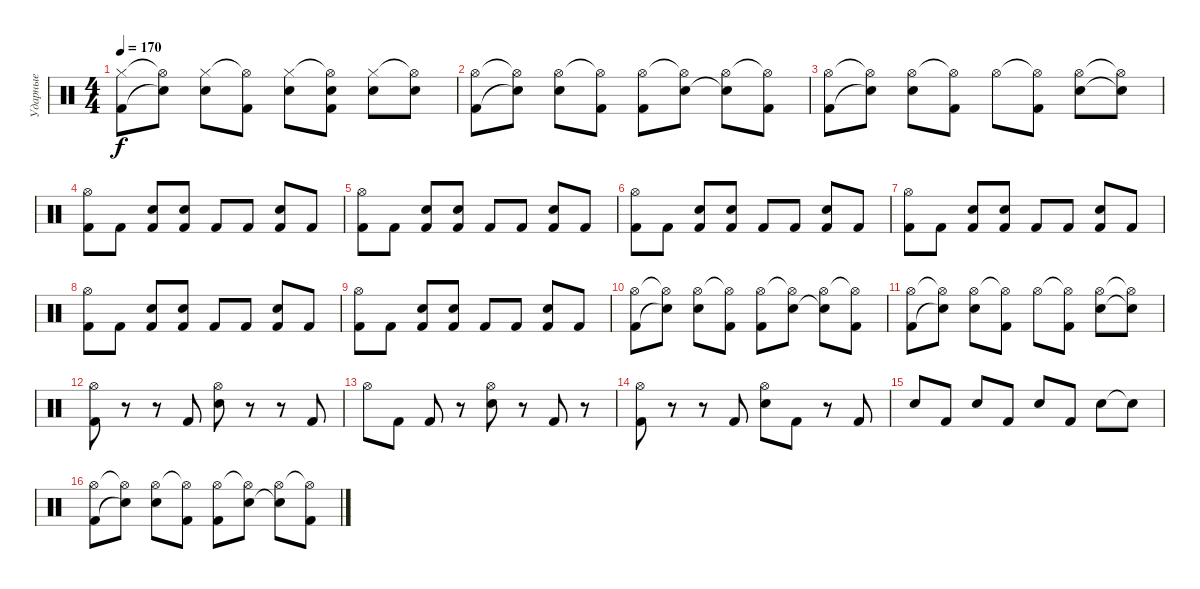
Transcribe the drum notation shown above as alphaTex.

\track ("Ударные" "Ударные") {instrument percussion}
\staff {score}
\articulation defaults
\ts (4 4)
\tempo 170
\clef neutral
\ks c
("Hi-Hat (closed)" "Kick (hit) 2").8{dy f} ("Hi-Hat (open)"{t} "Snare (hit)"{t}).8 ("Hi-Hat (closed)" "Electric Snare (hit)").8 ("Hi-Hat (open)"{t} "Kick (hit) 2").8 ("Hi-Hat (closed)" "Electric Snare (hit)").8 ("Hi-Hat (open)"{t} "Electric Snare (hit)" "Kick (hit) 2").8 ("Hi-Hat (closed)" "Electric Snare (hit)").8 ("Hi-Hat (open)"{t} "Electric Snare (hit)").8 |
("Hi-Hat (open)" "Kick (hit) 2").8 ("Hi-Hat (open)"{t} "Snare (hit)"{t}).8 ("Hi-Hat (open)" "Electric Snare (hit)").8 ("Hi-Hat (open)"{t} "Kick (hit) 2").8 ("Hi-Hat (open)" "Kick (hit) 2").8 ("Hi-Hat (open)"{t} "Electric Snare (hit)").8 ("Hi-Hat (open)" "Snare (hit)"{t}).8 ("Hi-Hat (open)"{t} "Kick (hit) 2").8 |
("Hi-Hat (open)" "Kick (hit) 2").8 ("Hi-Hat (open)"{t} "Snare (hit)"{t}).8 ("Hi-Hat (open)" "Electric Snare (hit)").8 ("Hi-Hat (open)"{t} "Kick (hit) 2").8 "Hi-Hat (open)".8 ("Hi-Hat (open)"{t} "Kick (hit) 2").8 ("Hi-Hat (open)" "Electric Snare (hit)").8 ("Hi-Hat (open)"{t} "Snare (hit)"{t}).8 |
("Hi-Hat (open)" "Kick (hit) 2").8 "Kick (hit) 2".8 ("Electric Snare (hit)" "Kick (hit) 2").8 ("Electric Snare (hit)" "Kick (hit) 2").8 "Kick (hit) 2".8 "Kick (hit) 2".8 ("Electric Snare (hit)" "Kick (hit) 2").8 "Kick (hit) 2".8 |
("Hi-Hat (open)" "Kick (hit) 2").8 "Kick (hit) 2".8 ("Electric Snare (hit)" "Kick (hit) 2").8 ("Electric Snare (hit)" "Kick (hit) 2").8 "Kick (hit) 2".8 "Kick (hit) 2".8 ("Electric Snare (hit)" "Kick (hit) 2").8 "Kick (hit) 2".8 |
("Hi-Hat (open)" "Kick (hit) 2").8 "Kick (hit) 2".8 ("Electric Snare (hit)" "Kick (hit) 2").8 ("Electric Snare (hit)" "Kick (hit) 2").8 "Kick (hit) 2".8 "Kick (hit) 2".8 ("Electric Snare (hit)" "Kick (hit) 2").8 "Kick (hit) 2".8 |
("Hi-Hat (open)" "Kick (hit) 2").8 "Kick (hit) 2".8 ("Electric Snare (hit)" "Kick (hit) 2").8 ("Electric Snare (hit)" "Kick (hit) 2").8 "Kick (hit) 2".8 "Kick (hit) 2".8 ("Electric Snare (hit)" "Kick (hit) 2").8 "Kick (hit) 2".8 |
("Hi-Hat (open)" "Kick (hit) 2").8 "Kick (hit) 2".8 ("Electric Snare (hit)" "Kick (hit) 2").8 ("Electric Snare (hit)" "Kick (hit) 2").8 "Kick (hit) 2".8 "Kick (hit) 2".8 ("Electric Snare (hit)" "Kick (hit) 2").8 "Kick (hit) 2".8 |
("Hi-Hat (open)" "Kick (hit) 2").8 "Kick (hit) 2".8 ("Electric Snare (hit)" "Kick (hit) 2").8 ("Electric Snare (hit)" "Kick (hit) 2").8 "Kick (hit) 2".8 "Kick (hit) 2".8 ("Electric Snare (hit)" "Kick (hit) 2").8 "Kick (hit) 2".8 |
("Hi-Hat (open)" "Kick (hit) 2").8 ("Hi-Hat (open)"{t} "Snare (hit)"{t}).8 ("Hi-Hat (open)" "Electric Snare (hit)").8 ("Hi-Hat (open)"{t} "Kick (hit) 2").8 ("Hi-Hat (open)" "Kick (hit) 2").8 ("Hi-Hat (open)"{t} "Electric Snare (hit)").8 ("Hi-Hat (open)" "Snare (hit)"{t}).8 ("Hi-Hat (open)"{t} "Kick (hit) 2").8 |
("Hi-Hat (open)" "Kick (hit) 2").8 ("Hi-Hat (open)"{t} "Snare (hit)"{t}).8 ("Hi-Hat (open)" "Electric Snare (hit)").8 ("Hi-Hat (open)"{t} "Kick (hit) 2").8 "Hi-Hat (open)".8 ("Hi-Hat (open)"{t} "Kick (hit) 2").8 ("Hi-Hat (open)" "Electric Snare (hit)").8 ("Hi-Hat (open)"{t} "Snare (hit)"{t}).8 |
("Hi-Hat (open)" "Kick (hit) 2").8 r.8 r.8 "Kick (hit) 2".8 ("Hi-Hat (open)" "Electric Snare (hit)").8 r.8 r.8 "Kick (hit) 2".8 |
"Hi-Hat (open)".8 "Kick (hit) 2".8 "Kick (hit) 2".8 r.8 ("Hi-Hat (open)" "Electric Snare (hit)").8 r.8 "Kick (hit) 2".8 r.8 |
("Hi-Hat (open)" "Kick (hit) 2").8 r.8 r.8 "Kick (hit) 2".8 ("Hi-Hat (open)" "Electric Snare (hit)").8 "Kick (hit) 2".8 r.8 "Kick (hit) 2".8 |
"Electric Snare (hit)".8 "Kick (hit) 2".8 "Electric Snare (hit)".8 "Kick (hit) 2".8 "Electric Snare (hit)".8 "Kick (hit) 2".8 "Electric Snare (hit)".8 "Snare (hit)"{t}.8 |
("Hi-Hat (open)" "Kick (hit) 2").8 ("Hi-Hat (open)"{t} "Snare (hit)"{t}).8 ("Hi-Hat (open)" "Electric Snare (hit)").8 ("Hi-Hat (open)"{t} "Kick (hit) 2").8 ("Hi-Hat (open)" "Kick (hit) 2").8 ("Hi-Hat (open)"{t} "Electric Snare (hit)").8 ("Hi-Hat (open)" "Snare (hit)"{t}).8 ("Hi-Hat (open)"{t} "Kick (hit) 2").8
